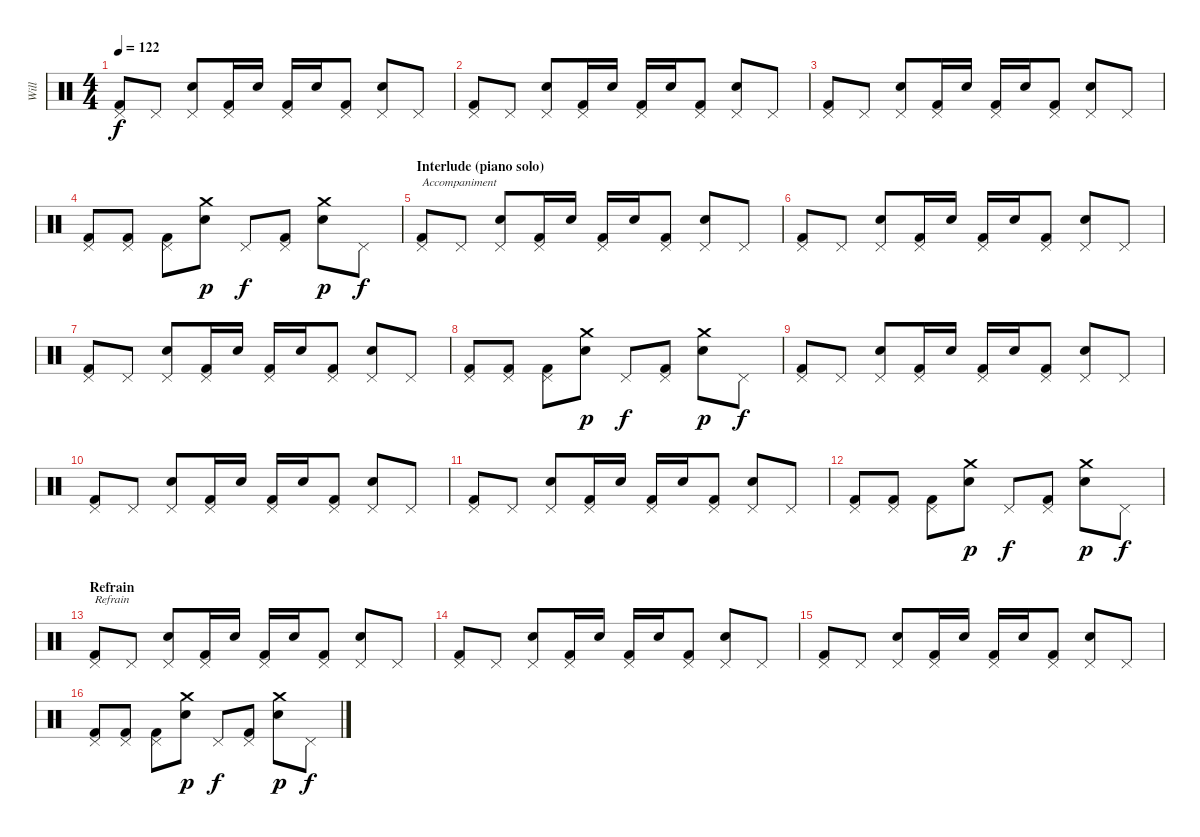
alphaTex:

\track ("Will" "Will") {instrument percussion}
\staff {score}
\articulation defaults
\ts (4 4)
\tempo 122
\clef neutral
\ks c
("Pedal Hi-Hat (hit)" "Kick (hit) 2").8{dy f} "Pedal Hi-Hat (hit)".8 ("Pedal Hi-Hat (hit)" "Electric Snare (hit)").8 ("Pedal Hi-Hat (hit)" "Kick (hit) 2").16 "Electric Snare (hit)".16 ("Pedal Hi-Hat (hit)" "Kick (hit) 2").16 "Electric Snare (hit)".16 ("Pedal Hi-Hat (hit)" "Kick (hit) 2").8 ("Pedal Hi-Hat (hit)" "Electric Snare (hit)").8 "Pedal Hi-Hat (hit)".8 |
("Pedal Hi-Hat (hit)" "Kick (hit) 2").8 "Pedal Hi-Hat (hit)".8 ("Pedal Hi-Hat (hit)" "Electric Snare (hit)").8 ("Pedal Hi-Hat (hit)" "Kick (hit) 2").16 "Electric Snare (hit)".16 ("Pedal Hi-Hat (hit)" "Kick (hit) 2").16 "Electric Snare (hit)".16 ("Pedal Hi-Hat (hit)" "Kick (hit) 2").8 ("Pedal Hi-Hat (hit)" "Electric Snare (hit)").8 "Pedal Hi-Hat (hit)".8 |
("Pedal Hi-Hat (hit)" "Kick (hit) 2").8 "Pedal Hi-Hat (hit)".8 ("Pedal Hi-Hat (hit)" "Electric Snare (hit)").8 ("Pedal Hi-Hat (hit)" "Kick (hit) 2").16 "Electric Snare (hit)".16 ("Pedal Hi-Hat (hit)" "Kick (hit) 2").16 "Electric Snare (hit)".16 ("Pedal Hi-Hat (hit)" "Kick (hit) 2").8 ("Pedal Hi-Hat (hit)" "Electric Snare (hit)").8 "Pedal Hi-Hat (hit)".8 |
("Pedal Hi-Hat (hit)" "Kick (hit) 2").8 ("Pedal Hi-Hat (hit)" "Kick (hit) 2").8 ("Pedal Hi-Hat (hit)" "Kick (hit) 2").8 ("Crash medium (hit)" "Electric Snare (hit)").8{dy p} "Pedal Hi-Hat (hit)".8{dy f} ("Pedal Hi-Hat (hit)" "Kick (hit) 2").8 ("Crash medium (hit)" "Electric Snare (hit)").8{dy p} "Pedal Hi-Hat (hit)".8{dy f} |
\section ("" "Interlude (piano solo)")
("Pedal Hi-Hat (hit)" "Kick (hit) 2").8{txt "Accompaniment"} "Pedal Hi-Hat (hit)".8 ("Pedal Hi-Hat (hit)" "Electric Snare (hit)").8 ("Pedal Hi-Hat (hit)" "Kick (hit) 2").16 "Electric Snare (hit)".16 ("Pedal Hi-Hat (hit)" "Kick (hit) 2").16 "Electric Snare (hit)".16 ("Pedal Hi-Hat (hit)" "Kick (hit) 2").8 ("Pedal Hi-Hat (hit)" "Electric Snare (hit)").8 "Pedal Hi-Hat (hit)".8 |
("Pedal Hi-Hat (hit)" "Kick (hit) 2").8 "Pedal Hi-Hat (hit)".8 ("Pedal Hi-Hat (hit)" "Electric Snare (hit)").8 ("Pedal Hi-Hat (hit)" "Kick (hit) 2").16 "Electric Snare (hit)".16 ("Pedal Hi-Hat (hit)" "Kick (hit) 2").16 "Electric Snare (hit)".16 ("Pedal Hi-Hat (hit)" "Kick (hit) 2").8 ("Pedal Hi-Hat (hit)" "Electric Snare (hit)").8 "Pedal Hi-Hat (hit)".8 |
("Pedal Hi-Hat (hit)" "Kick (hit) 2").8 "Pedal Hi-Hat (hit)".8 ("Pedal Hi-Hat (hit)" "Electric Snare (hit)").8 ("Pedal Hi-Hat (hit)" "Kick (hit) 2").16 "Electric Snare (hit)".16 ("Pedal Hi-Hat (hit)" "Kick (hit) 2").16 "Electric Snare (hit)".16 ("Pedal Hi-Hat (hit)" "Kick (hit) 2").8 ("Pedal Hi-Hat (hit)" "Electric Snare (hit)").8 "Pedal Hi-Hat (hit)".8 |
("Pedal Hi-Hat (hit)" "Kick (hit) 2").8 ("Pedal Hi-Hat (hit)" "Kick (hit) 2").8 ("Pedal Hi-Hat (hit)" "Kick (hit) 2").8 ("Crash medium (hit)" "Electric Snare (hit)").8{dy p} "Pedal Hi-Hat (hit)".8{dy f} ("Pedal Hi-Hat (hit)" "Kick (hit) 2").8 ("Crash medium (hit)" "Electric Snare (hit)").8{dy p} "Pedal Hi-Hat (hit)".8{dy f} |
("Pedal Hi-Hat (hit)" "Kick (hit) 2").8 "Pedal Hi-Hat (hit)".8 ("Pedal Hi-Hat (hit)" "Electric Snare (hit)").8 ("Pedal Hi-Hat (hit)" "Kick (hit) 2").16 "Electric Snare (hit)".16 ("Pedal Hi-Hat (hit)" "Kick (hit) 2").16 "Electric Snare (hit)".16 ("Pedal Hi-Hat (hit)" "Kick (hit) 2").8 ("Pedal Hi-Hat (hit)" "Electric Snare (hit)").8 "Pedal Hi-Hat (hit)".8 |
("Pedal Hi-Hat (hit)" "Kick (hit) 2").8 "Pedal Hi-Hat (hit)".8 ("Pedal Hi-Hat (hit)" "Electric Snare (hit)").8 ("Pedal Hi-Hat (hit)" "Kick (hit) 2").16 "Electric Snare (hit)".16 ("Pedal Hi-Hat (hit)" "Kick (hit) 2").16 "Electric Snare (hit)".16 ("Pedal Hi-Hat (hit)" "Kick (hit) 2").8 ("Pedal Hi-Hat (hit)" "Electric Snare (hit)").8 "Pedal Hi-Hat (hit)".8 |
("Pedal Hi-Hat (hit)" "Kick (hit) 2").8 "Pedal Hi-Hat (hit)".8 ("Pedal Hi-Hat (hit)" "Electric Snare (hit)").8 ("Pedal Hi-Hat (hit)" "Kick (hit) 2").16 "Electric Snare (hit)".16 ("Pedal Hi-Hat (hit)" "Kick (hit) 2").16 "Electric Snare (hit)".16 ("Pedal Hi-Hat (hit)" "Kick (hit) 2").8 ("Pedal Hi-Hat (hit)" "Electric Snare (hit)").8 "Pedal Hi-Hat (hit)".8 |
("Pedal Hi-Hat (hit)" "Kick (hit) 2").8 ("Pedal Hi-Hat (hit)" "Kick (hit) 2").8 ("Pedal Hi-Hat (hit)" "Kick (hit) 2").8 ("Crash medium (hit)" "Electric Snare (hit)").8{dy p} "Pedal Hi-Hat (hit)".8{dy f} ("Pedal Hi-Hat (hit)" "Kick (hit) 2").8 ("Crash medium (hit)" "Electric Snare (hit)").8{dy p} "Pedal Hi-Hat (hit)".8{dy f} |
\section ("" "Refrain")
("Pedal Hi-Hat (hit)" "Kick (hit) 2").8{txt "Refrain"} "Pedal Hi-Hat (hit)".8 ("Pedal Hi-Hat (hit)" "Electric Snare (hit)").8 ("Pedal Hi-Hat (hit)" "Kick (hit) 2").16 "Electric Snare (hit)".16 ("Pedal Hi-Hat (hit)" "Kick (hit) 2").16 "Electric Snare (hit)".16 ("Pedal Hi-Hat (hit)" "Kick (hit) 2").8 ("Pedal Hi-Hat (hit)" "Electric Snare (hit)").8 "Pedal Hi-Hat (hit)".8 |
("Pedal Hi-Hat (hit)" "Kick (hit) 2").8 "Pedal Hi-Hat (hit)".8 ("Pedal Hi-Hat (hit)" "Electric Snare (hit)").8 ("Pedal Hi-Hat (hit)" "Kick (hit) 2").16 "Electric Snare (hit)".16 ("Pedal Hi-Hat (hit)" "Kick (hit) 2").16 "Electric Snare (hit)".16 ("Pedal Hi-Hat (hit)" "Kick (hit) 2").8 ("Pedal Hi-Hat (hit)" "Electric Snare (hit)").8 "Pedal Hi-Hat (hit)".8 |
("Pedal Hi-Hat (hit)" "Kick (hit) 2").8 "Pedal Hi-Hat (hit)".8 ("Pedal Hi-Hat (hit)" "Electric Snare (hit)").8 ("Pedal Hi-Hat (hit)" "Kick (hit) 2").16 "Electric Snare (hit)".16 ("Pedal Hi-Hat (hit)" "Kick (hit) 2").16 "Electric Snare (hit)".16 ("Pedal Hi-Hat (hit)" "Kick (hit) 2").8 ("Pedal Hi-Hat (hit)" "Electric Snare (hit)").8 "Pedal Hi-Hat (hit)".8 |
("Pedal Hi-Hat (hit)" "Kick (hit) 2").8 ("Pedal Hi-Hat (hit)" "Kick (hit) 2").8 ("Pedal Hi-Hat (hit)" "Kick (hit) 2").8 ("Crash medium (hit)" "Electric Snare (hit)").8{dy p} "Pedal Hi-Hat (hit)".8{dy f} ("Pedal Hi-Hat (hit)" "Kick (hit) 2").8 ("Crash medium (hit)" "Electric Snare (hit)").8{dy p} "Pedal Hi-Hat (hit)".8{dy f}
